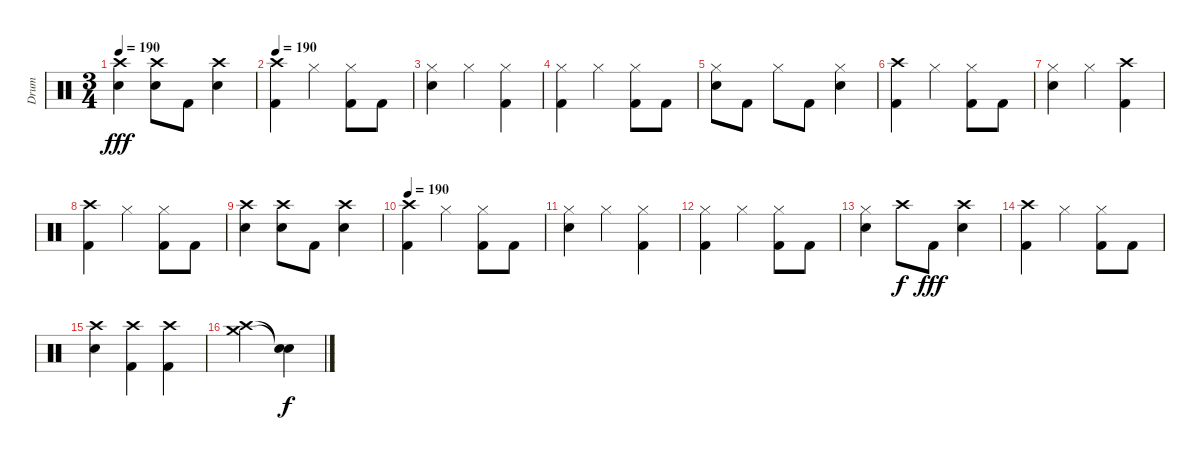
\track ("Drum" "Drum") {instrument percussion}
\staff {score}
\articulation defaults
\ts (3 4)
\tempo 190
\clef neutral
\ks c
("Crash high (hit)" "Snare (hit) 2").4{dy fff} ("Crash high (hit)" "Snare (hit) 2").8 "Kick (hit) 2".8 ("Crash high (hit)" "Snare (hit) 2").4 |
\tempo 190
("Crash high (hit)" "Kick (hit) 2").4 "Hi-Hat (closed)".4 ("Hi-Hat (closed)" "Kick (hit) 2").8 "Kick (hit) 2".8 |
("Hi-Hat (closed)" "Snare (hit) 2").4 "Hi-Hat (closed)".4 ("Hi-Hat (closed)" "Kick (hit) 2").4 |
("Hi-Hat (closed)" "Kick (hit) 2").4 "Hi-Hat (closed)".4 ("Hi-Hat (closed)" "Kick (hit) 2").8 "Kick (hit) 2".8 |
("Hi-Hat (closed)" "Snare (hit) 2").8 "Kick (hit) 2".8 "Hi-Hat (closed)".8 "Kick (hit) 2".8 ("Hi-Hat (closed)" "Snare (hit) 2").4 |
("Crash high (hit)" "Kick (hit) 2").4 "Hi-Hat (closed)".4 ("Hi-Hat (closed)" "Kick (hit) 2").8 "Kick (hit) 2".8 |
("Hi-Hat (closed)" "Snare (hit) 2").4 "Hi-Hat (closed)".4 ("Crash high (hit)" "Kick (hit) 2").4 |
("Crash high (hit)" "Kick (hit) 2").4 "Hi-Hat (closed)".4 ("Hi-Hat (closed)" "Kick (hit) 2").8 "Kick (hit) 2".8 |
("Crash high (hit)" "Snare (hit) 2").4 ("Crash high (hit)" "Snare (hit) 2").8 "Kick (hit) 2".8 ("Crash high (hit)" "Snare (hit) 2").4 |
\tempo 190
("Crash high (hit)" "Kick (hit) 2").4 "Hi-Hat (closed)".4 ("Hi-Hat (closed)" "Kick (hit) 2").8 "Kick (hit) 2".8 |
("Hi-Hat (closed)" "Snare (hit) 2").4 "Hi-Hat (closed)".4 ("Hi-Hat (closed)" "Kick (hit) 2").4 |
("Hi-Hat (closed)" "Kick (hit) 2").4 "Hi-Hat (closed)".4 ("Hi-Hat (closed)" "Kick (hit) 2").8 "Kick (hit) 2".8 |
("Hi-Hat (closed)" "Snare (hit) 2").4 "Crash high (hit)".8{dy f} "Kick (hit) 2".8{dy fff} ("Crash high (hit)" "Snare (hit) 2").4 |
("Crash high (hit)" "Kick (hit) 2").4 "Hi-Hat (closed)".4 ("Hi-Hat (closed)" "Kick (hit) 2").8 "Kick (hit) 2".8 |
("Crash high (hit)" "Snare (hit) 2").4 ("Crash high (hit)" "Kick (hit) 2").4 ("Crash high (hit)" "Kick (hit) 2").4 |
("Crash high (hit)" "Crash medium (hit)").2 ("Snare (hit)"{t} "Snare (hit)"{t}).4{dy f}
